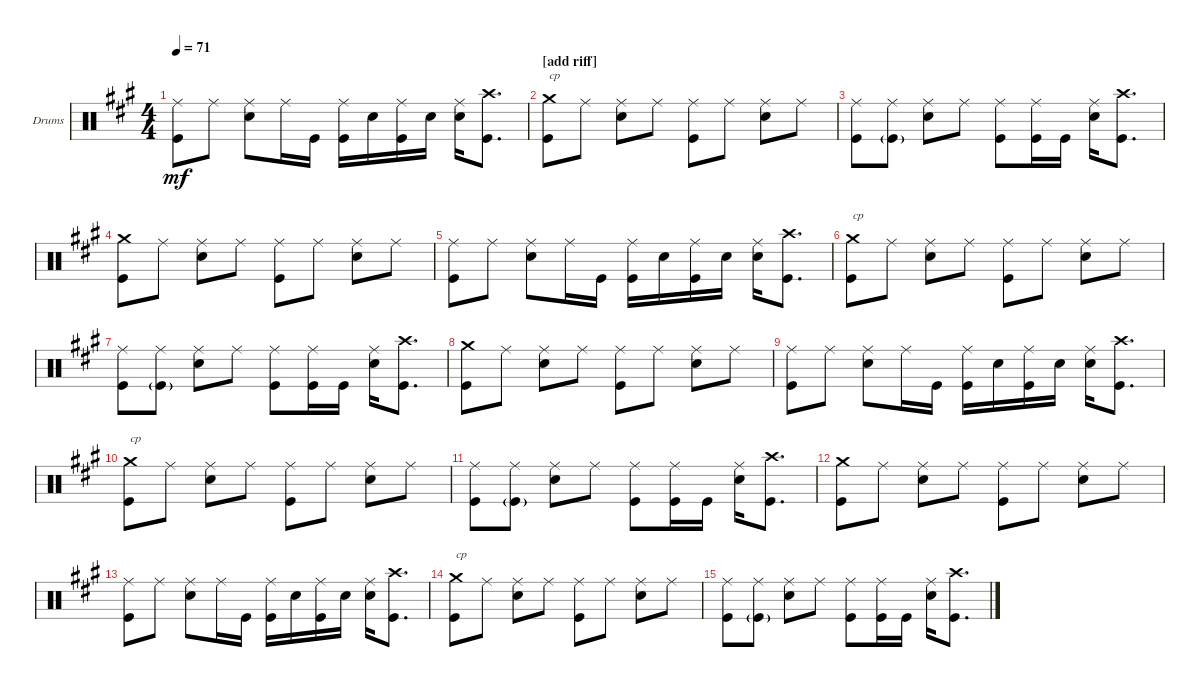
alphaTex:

\defaultSystemsLayout 4
\bracketExtendMode groupsimilarinstruments
\firstSystemTrackNameOrientation horizontal
\otherSystemsTrackNameOrientation horizontal
\track ("Drumkit" "Drums") {instrument percussion}
\staff {score}
\articulation defaults
\ts (4 4)
\tempo 71
\clef neutral
\ks a
("Ride (middle)" "Kick (hit)").8{dy mf} "Ride (middle)".8 ("Ride (middle)" "Snare (hit) 2").8 "Ride (middle)".16 "Kick (hit)".16 ("Ride (middle)" "Kick (hit)").16 "Snare (hit) 2".16 ("Ride (middle)" "Kick (hit)").16 "Snare (hit) 2".16 ("Ride (middle)" "Snare (hit) 2").16 ("Crash high (hit)" "Kick (hit)").8{d} |
\section ("" "[add riff]")
("Kick (hit)" "Crash medium (hit)").8{txt "cp"} "Ride (middle)".8 ("Ride (middle)" "Snare (hit) 2").8 "Ride (middle)".8 ("Ride (middle)" "Kick (hit)").8 "Ride (middle)".8 ("Ride (middle)" "Snare (hit) 2").8 "Ride (middle)".8 |
("Ride (middle)" "Kick (hit)").8 ("Ride (middle)" "Kick (hit)"{g}).8 ("Ride (middle)" "Snare (hit) 2").8 "Ride (middle)".8 ("Ride (middle)" "Kick (hit)").8 ("Ride (middle)" "Kick (hit)").16 "Kick (hit)".16 ("Ride (middle)" "Snare (hit) 2").16 ("Crash high (hit)" "Kick (hit)").8{d} |
("Kick (hit)" "Crash medium (hit)").8 "Ride (middle)".8 ("Ride (middle)" "Snare (hit) 2").8 "Ride (middle)".8 ("Ride (middle)" "Kick (hit)").8 "Ride (middle)".8 ("Ride (middle)" "Snare (hit) 2").8 "Ride (middle)".8 |
("Ride (middle)" "Kick (hit)").8 "Ride (middle)".8 ("Ride (middle)" "Snare (hit) 2").8 "Ride (middle)".16 "Kick (hit)".16 ("Ride (middle)" "Kick (hit)").16 "Snare (hit) 2".16 ("Ride (middle)" "Kick (hit)").16 "Snare (hit) 2".16 ("Ride (middle)" "Snare (hit) 2").16 ("Crash high (hit)" "Kick (hit)").8{d} |
("Kick (hit)" "Crash medium (hit)").8{txt "cp"} "Ride (middle)".8 ("Ride (middle)" "Snare (hit) 2").8 "Ride (middle)".8 ("Ride (middle)" "Kick (hit)").8 "Ride (middle)".8 ("Ride (middle)" "Snare (hit) 2").8 "Ride (middle)".8 |
("Ride (middle)" "Kick (hit)").8 ("Ride (middle)" "Kick (hit)"{g}).8 ("Ride (middle)" "Snare (hit) 2").8 "Ride (middle)".8 ("Ride (middle)" "Kick (hit)").8 ("Ride (middle)" "Kick (hit)").16 "Kick (hit)".16 ("Ride (middle)" "Snare (hit) 2").16 ("Crash high (hit)" "Kick (hit)").8{d} |
("Kick (hit)" "Crash medium (hit)").8 "Ride (middle)".8 ("Ride (middle)" "Snare (hit) 2").8 "Ride (middle)".8 ("Ride (middle)" "Kick (hit)").8 "Ride (middle)".8 ("Ride (middle)" "Snare (hit) 2").8 "Ride (middle)".8 |
("Ride (middle)" "Kick (hit)").8 "Ride (middle)".8 ("Ride (middle)" "Snare (hit) 2").8 "Ride (middle)".16 "Kick (hit)".16 ("Ride (middle)" "Kick (hit)").16 "Snare (hit) 2".16 ("Ride (middle)" "Kick (hit)").16 "Snare (hit) 2".16 ("Ride (middle)" "Snare (hit) 2").16 ("Crash high (hit)" "Kick (hit)").8{d} |
("Kick (hit)" "Crash medium (hit)").8{txt "cp"} "Ride (middle)".8 ("Ride (middle)" "Snare (hit) 2").8 "Ride (middle)".8 ("Ride (middle)" "Kick (hit)").8 "Ride (middle)".8 ("Ride (middle)" "Snare (hit) 2").8 "Ride (middle)".8 |
("Ride (middle)" "Kick (hit)").8 ("Ride (middle)" "Kick (hit)"{g}).8 ("Ride (middle)" "Snare (hit) 2").8 "Ride (middle)".8 ("Ride (middle)" "Kick (hit)").8 ("Ride (middle)" "Kick (hit)").16 "Kick (hit)".16 ("Ride (middle)" "Snare (hit) 2").16 ("Crash high (hit)" "Kick (hit)").8{d} |
("Kick (hit)" "Crash medium (hit)").8 "Ride (middle)".8 ("Ride (middle)" "Snare (hit) 2").8 "Ride (middle)".8 ("Ride (middle)" "Kick (hit)").8 "Ride (middle)".8 ("Ride (middle)" "Snare (hit) 2").8 "Ride (middle)".8 |
("Ride (middle)" "Kick (hit)").8 "Ride (middle)".8 ("Ride (middle)" "Snare (hit) 2").8 "Ride (middle)".16 "Kick (hit)".16 ("Ride (middle)" "Kick (hit)").16 "Snare (hit) 2".16 ("Ride (middle)" "Kick (hit)").16 "Snare (hit) 2".16 ("Ride (middle)" "Snare (hit) 2").16 ("Crash high (hit)" "Kick (hit)").8{d} |
("Kick (hit)" "Crash medium (hit)").8{txt "cp"} "Ride (middle)".8 ("Ride (middle)" "Snare (hit) 2").8 "Ride (middle)".8 ("Ride (middle)" "Kick (hit)").8 "Ride (middle)".8 ("Ride (middle)" "Snare (hit) 2").8 "Ride (middle)".8 |
("Ride (middle)" "Kick (hit)").8 ("Ride (middle)" "Kick (hit)"{g}).8 ("Ride (middle)" "Snare (hit) 2").8 "Ride (middle)".8 ("Ride (middle)" "Kick (hit)").8 ("Ride (middle)" "Kick (hit)").16 "Kick (hit)".16 ("Ride (middle)" "Snare (hit) 2").16 ("Crash high (hit)" "Kick (hit)").8{d}
